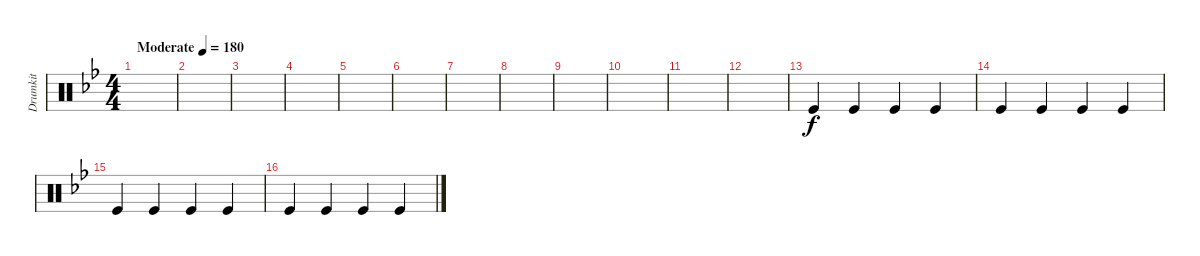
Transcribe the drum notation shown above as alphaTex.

\track ("Drumkit" "Drumkit") {instrument percussion}
\staff {score}
\articulation defaults
\ts (4 4)
\tempo (180 "Moderate")
\clef neutral
\ks bb
|
|
|
|
|
|
|
|
|
|
|
|
"Kick (hit)".4 "Kick (hit)".4 "Kick (hit)".4 "Kick (hit)".4 |
"Kick (hit)".4 "Kick (hit)".4 "Kick (hit)".4 "Kick (hit)".4 |
"Kick (hit)".4 "Kick (hit)".4 "Kick (hit)".4 "Kick (hit)".4 |
"Kick (hit)".4 "Kick (hit)".4 "Kick (hit)".4 "Kick (hit)".4
